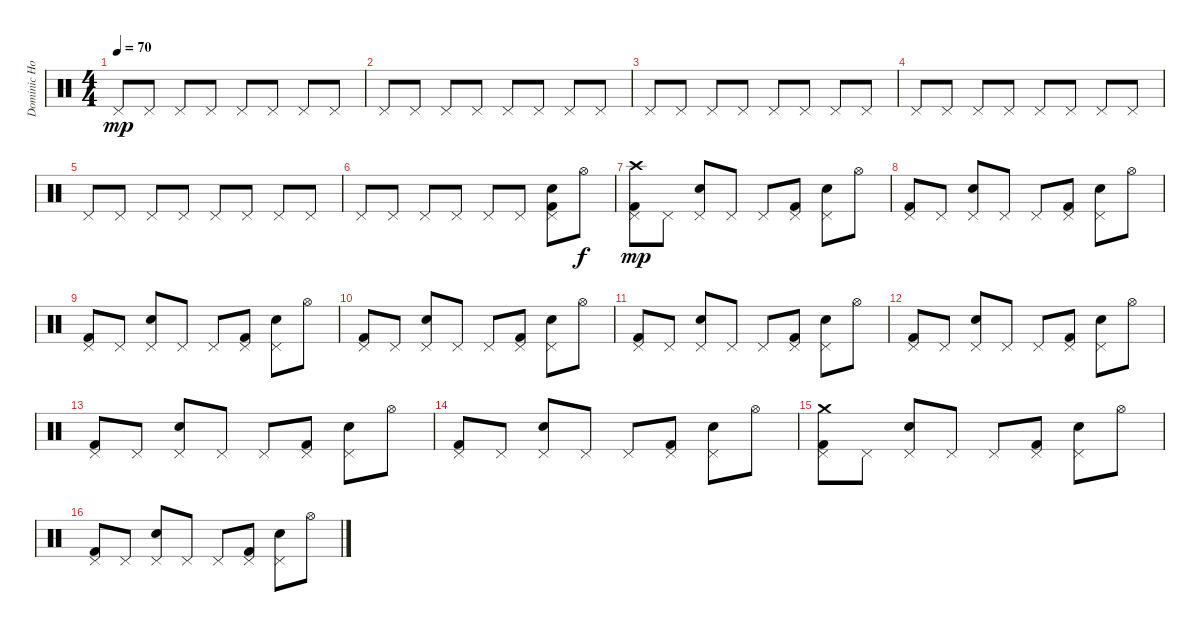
\track ("Dominic Howard" "Dominic Ho") {instrument percussion}
\staff {score}
\articulation defaults
\ts (4 4)
\tempo 70
\clef neutral
\ks c "Pedal Hi-Hat (hit)".8{dy mp} "Pedal Hi-Hat (hit)".8 "Pedal Hi-Hat (hit)".8 "Pedal Hi-Hat (hit)".8 "Pedal Hi-Hat (hit)".8 "Pedal Hi-Hat (hit)".8 "Pedal Hi-Hat (hit)".8 "Pedal Hi-Hat (hit)".8
|
"Pedal Hi-Hat (hit)".8 "Pedal Hi-Hat (hit)".8 "Pedal Hi-Hat (hit)".8 "Pedal Hi-Hat (hit)".8 "Pedal Hi-Hat (hit)".8 "Pedal Hi-Hat (hit)".8 "Pedal Hi-Hat (hit)".8 "Pedal Hi-Hat (hit)".8 |
"Pedal Hi-Hat (hit)".8 "Pedal Hi-Hat (hit)".8 "Pedal Hi-Hat (hit)".8 "Pedal Hi-Hat (hit)".8 "Pedal Hi-Hat (hit)".8 "Pedal Hi-Hat (hit)".8 "Pedal Hi-Hat (hit)".8 "Pedal Hi-Hat (hit)".8 |
"Pedal Hi-Hat (hit)".8 "Pedal Hi-Hat (hit)".8 "Pedal Hi-Hat (hit)".8 "Pedal Hi-Hat (hit)".8 "Pedal Hi-Hat (hit)".8 "Pedal Hi-Hat (hit)".8 "Pedal Hi-Hat (hit)".8 "Pedal Hi-Hat (hit)".8 |
"Pedal Hi-Hat (hit)".8 "Pedal Hi-Hat (hit)".8 "Pedal Hi-Hat (hit)".8 "Pedal Hi-Hat (hit)".8 "Pedal Hi-Hat (hit)".8 "Pedal Hi-Hat (hit)".8 "Pedal Hi-Hat (hit)".8 "Pedal Hi-Hat (hit)".8 |
"Pedal Hi-Hat (hit)".8 "Pedal Hi-Hat (hit)".8 "Pedal Hi-Hat (hit)".8 "Pedal Hi-Hat (hit)".8 "Pedal Hi-Hat (hit)".8 "Pedal Hi-Hat (hit)".8 ("Pedal Hi-Hat (hit)" "Electric Snare (hit)" "Kick (hit) 2").8 "Hi-Hat (open)".8{dy f} |
("Crash high (hit)" "Pedal Hi-Hat (hit)" "Kick (hit) 2").8{dy mp} "Pedal Hi-Hat (hit)".8 ("Pedal Hi-Hat (hit)" "Electric Snare (hit)").8 "Pedal Hi-Hat (hit)".8 "Pedal Hi-Hat (hit)".8 ("Pedal Hi-Hat (hit)" "Kick (hit) 2").8 ("Pedal Hi-Hat (hit)" "Electric Snare (hit)").8 "Hi-Hat (open)".8 |
("Pedal Hi-Hat (hit)" "Kick (hit) 2").8 "Pedal Hi-Hat (hit)".8 ("Pedal Hi-Hat (hit)" "Electric Snare (hit)").8 "Pedal Hi-Hat (hit)".8 "Pedal Hi-Hat (hit)".8 ("Pedal Hi-Hat (hit)" "Kick (hit) 2").8 ("Pedal Hi-Hat (hit)" "Electric Snare (hit)").8 "Hi-Hat (open)".8 |
("Pedal Hi-Hat (hit)" "Kick (hit) 2").8 "Pedal Hi-Hat (hit)".8 ("Pedal Hi-Hat (hit)" "Electric Snare (hit)").8 "Pedal Hi-Hat (hit)".8 "Pedal Hi-Hat (hit)".8 ("Pedal Hi-Hat (hit)" "Kick (hit) 2").8 ("Pedal Hi-Hat (hit)" "Electric Snare (hit)").8 "Hi-Hat (open)".8 |
("Pedal Hi-Hat (hit)" "Kick (hit) 2").8 "Pedal Hi-Hat (hit)".8 ("Pedal Hi-Hat (hit)" "Electric Snare (hit)").8 "Pedal Hi-Hat (hit)".8 "Pedal Hi-Hat (hit)".8 ("Pedal Hi-Hat (hit)" "Kick (hit) 2").8 ("Pedal Hi-Hat (hit)" "Electric Snare (hit)").8 "Hi-Hat (open)".8 |
("Pedal Hi-Hat (hit)" "Kick (hit) 2").8 "Pedal Hi-Hat (hit)".8 ("Pedal Hi-Hat (hit)" "Electric Snare (hit)").8 "Pedal Hi-Hat (hit)".8 "Pedal Hi-Hat (hit)".8 ("Pedal Hi-Hat (hit)" "Kick (hit) 2").8 ("Pedal Hi-Hat (hit)" "Electric Snare (hit)").8 "Hi-Hat (open)".8 |
("Pedal Hi-Hat (hit)" "Kick (hit) 2").8 "Pedal Hi-Hat (hit)".8 ("Pedal Hi-Hat (hit)" "Electric Snare (hit)").8 "Pedal Hi-Hat (hit)".8 "Pedal Hi-Hat (hit)".8 ("Pedal Hi-Hat (hit)" "Kick (hit) 2").8 ("Pedal Hi-Hat (hit)" "Electric Snare (hit)").8 "Hi-Hat (open)".8 |
("Pedal Hi-Hat (hit)" "Kick (hit) 2").8 "Pedal Hi-Hat (hit)".8 ("Pedal Hi-Hat (hit)" "Electric Snare (hit)").8 "Pedal Hi-Hat (hit)".8 "Pedal Hi-Hat (hit)".8 ("Pedal Hi-Hat (hit)" "Kick (hit) 2").8 ("Pedal Hi-Hat (hit)" "Electric Snare (hit)").8 "Hi-Hat (open)".8 |
("Pedal Hi-Hat (hit)" "Kick (hit) 2").8 "Pedal Hi-Hat (hit)".8 ("Pedal Hi-Hat (hit)" "Electric Snare (hit)").8 "Pedal Hi-Hat (hit)".8 "Pedal Hi-Hat (hit)".8 ("Pedal Hi-Hat (hit)" "Kick (hit) 2").8 ("Pedal Hi-Hat (hit)" "Electric Snare (hit)").8 "Hi-Hat (open)".8 |
("Crash medium (hit)" "Pedal Hi-Hat (hit)" "Kick (hit) 2").8 "Pedal Hi-Hat (hit)".8 ("Pedal Hi-Hat (hit)" "Electric Snare (hit)").8 "Pedal Hi-Hat (hit)".8 "Pedal Hi-Hat (hit)".8 ("Pedal Hi-Hat (hit)" "Kick (hit) 2").8 ("Pedal Hi-Hat (hit)" "Electric Snare (hit)").8 "Hi-Hat (open)".8 |
("Pedal Hi-Hat (hit)" "Kick (hit) 2").8 "Pedal Hi-Hat (hit)".8 ("Pedal Hi-Hat (hit)" "Electric Snare (hit)").8 "Pedal Hi-Hat (hit)".8 "Pedal Hi-Hat (hit)".8 ("Pedal Hi-Hat (hit)" "Kick (hit) 2").8 ("Pedal Hi-Hat (hit)" "Electric Snare (hit)").8 "Hi-Hat (open)".8
